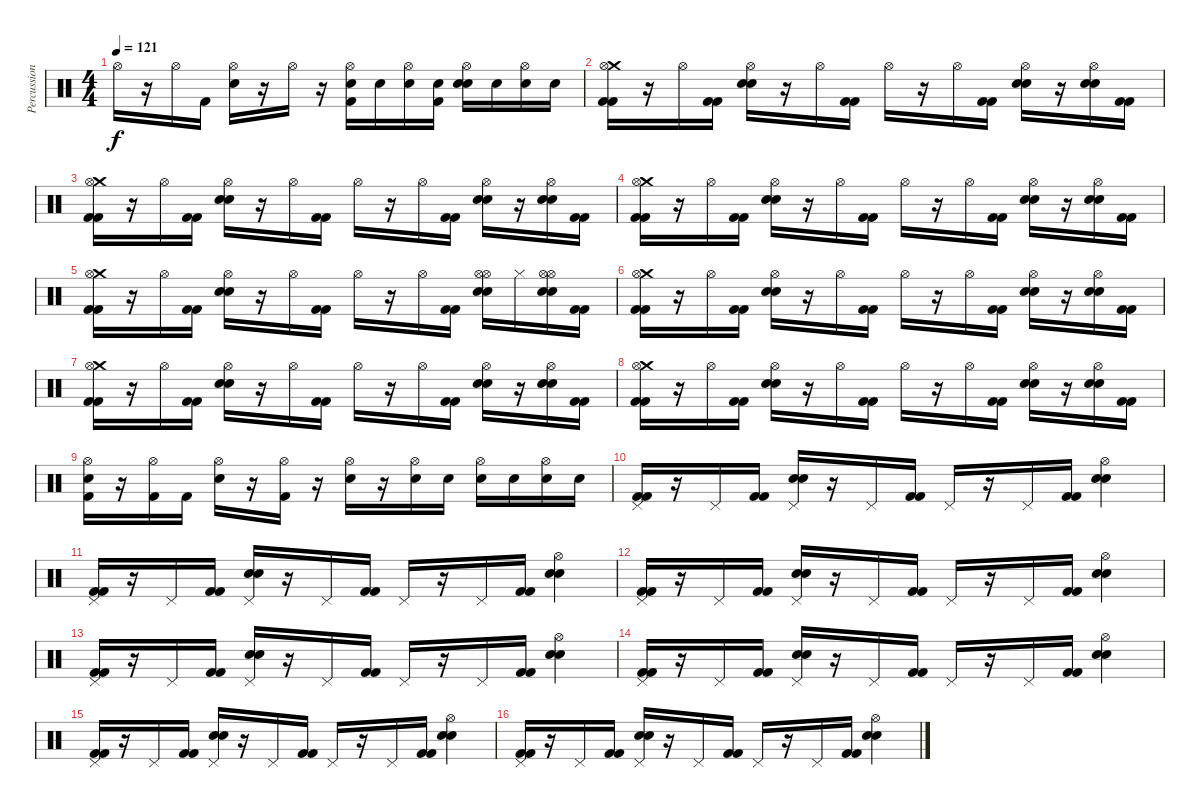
\track ("Percussion- Mike" "Percussion") {instrument percussion}
\staff {score}
\articulation defaults
\ts (4 4)
\tempo 121
\clef neutral
\ks c "Hi-Hat (open)".16{dy f}
r.16 "Hi-Hat (open)".16 "Kick (hit) 2".16 ("Electric Snare (hit)" "Hi-Hat (open)").16 r.16 "Hi-Hat (open)".16 r.16 ("Electric Snare (hit)" "Kick (hit) 2" "Hi-Hat (open)").16 "Electric Snare (hit)".16 ("Electric Snare (hit)" "Hi-Hat (open)").16 ("Electric Snare (hit)" "Kick (hit) 2").16 ("Electric Snare (hit)" "Electric Snare (hit)" "Hi-Hat (open)").16 "Electric Snare (hit)".16 ("Electric Snare (hit)" "Hi-Hat (open)").16 "Electric Snare (hit)".16 |
("Crash medium (hit)" "Kick (hit) 2" "Kick (hit) 2" "Hi-Hat (open)").16 r.16 "Hi-Hat (open)".16 ("Kick (hit) 2" "Kick (hit) 2").16 ("Snare (hit) 2" "Snare (hit) 2" "Hi-Hat (open)").16 r.16 "Hi-Hat (open)".16 ("Kick (hit) 2" "Kick (hit) 2").16 "Hi-Hat (open)".16 r.16 "Hi-Hat (open)".16 ("Kick (hit) 2" "Kick (hit) 2").16 ("Snare (hit) 2" "Snare (hit) 2" "Hi-Hat (open)").16 r.16 ("Electric Snare (hit)" "Electric Snare (hit)" "Hi-Hat (open)").16 ("Kick (hit) 2" "Kick (hit) 2").16 |
("Crash medium (hit)" "Kick (hit) 2" "Kick (hit) 2" "Hi-Hat (open)").16 r.16 "Hi-Hat (open)".16 ("Kick (hit) 2" "Kick (hit) 2").16 ("Snare (hit) 2" "Snare (hit) 2" "Hi-Hat (open)").16 r.16 "Hi-Hat (open)".16 ("Kick (hit) 2" "Kick (hit) 2").16 "Hi-Hat (open)".16 r.16 "Hi-Hat (open)".16 ("Kick (hit) 2" "Kick (hit) 2").16 ("Snare (hit) 2" "Snare (hit) 2" "Hi-Hat (open)").16 r.16 ("Electric Snare (hit)" "Electric Snare (hit)" "Hi-Hat (open)").16 ("Kick (hit) 2" "Kick (hit) 2").16 |
("Crash medium (hit)" "Kick (hit) 2" "Kick (hit) 2" "Hi-Hat (open)").16 r.16 "Hi-Hat (open)".16 ("Kick (hit) 2" "Kick (hit) 2").16 ("Snare (hit) 2" "Snare (hit) 2" "Hi-Hat (open)").16 r.16 "Hi-Hat (open)".16 ("Kick (hit) 2" "Kick (hit) 2").16 "Hi-Hat (open)".16 r.16 "Hi-Hat (open)".16 ("Kick (hit) 2" "Kick (hit) 2").16 ("Snare (hit) 2" "Snare (hit) 2" "Hi-Hat (open)").16 r.16 ("Electric Snare (hit)" "Electric Snare (hit)" "Hi-Hat (open)").16 ("Kick (hit) 2" "Kick (hit) 2").16 |
("Crash medium (hit)" "Kick (hit) 2" "Kick (hit) 2" "Hi-Hat (open)").16 r.16 "Hi-Hat (open)".16 ("Kick (hit) 2" "Kick (hit) 2").16 ("Snare (hit) 2" "Snare (hit) 2" "Hi-Hat (open)").16 r.16 "Hi-Hat (open)".16 ("Kick (hit) 2" "Kick (hit) 2").16 "Hi-Hat (open)".16 r.16 "Hi-Hat (open)".16 ("Kick (hit) 2" "Kick (hit) 2").16 ("Hi-Hat (open)" "Snare (hit) 2" "Snare (hit) 2" "Hi-Hat (open)").16 "Hi-Hat (closed)".16 ("Hi-Hat (open)" "Electric Snare (hit)" "Electric Snare (hit)" "Hi-Hat (open)").16 ("Kick (hit) 2" "Kick (hit) 2").16 |
("Crash medium (hit)" "Kick (hit) 2" "Kick (hit) 2" "Hi-Hat (open)").16 r.16 "Hi-Hat (open)".16 ("Kick (hit) 2" "Kick (hit) 2").16 ("Snare (hit) 2" "Snare (hit) 2" "Hi-Hat (open)").16 r.16 "Hi-Hat (open)".16 ("Kick (hit) 2" "Kick (hit) 2").16 "Hi-Hat (open)".16 r.16 "Hi-Hat (open)".16 ("Kick (hit) 2" "Kick (hit) 2").16 ("Snare (hit) 2" "Snare (hit) 2" "Hi-Hat (open)").16 r.16 ("Electric Snare (hit)" "Electric Snare (hit)" "Hi-Hat (open)").16 ("Kick (hit) 2" "Kick (hit) 2").16 |
("Crash medium (hit)" "Kick (hit) 2" "Kick (hit) 2" "Hi-Hat (open)").16 r.16 "Hi-Hat (open)".16 ("Kick (hit) 2" "Kick (hit) 2").16 ("Snare (hit) 2" "Snare (hit) 2" "Hi-Hat (open)").16 r.16 "Hi-Hat (open)".16 ("Kick (hit) 2" "Kick (hit) 2").16 "Hi-Hat (open)".16 r.16 "Hi-Hat (open)".16 ("Kick (hit) 2" "Kick (hit) 2").16 ("Snare (hit) 2" "Snare (hit) 2" "Hi-Hat (open)").16 r.16 ("Electric Snare (hit)" "Electric Snare (hit)" "Hi-Hat (open)").16 ("Kick (hit) 2" "Kick (hit) 2").16 |
("Crash medium (hit)" "Kick (hit) 2" "Kick (hit) 2" "Hi-Hat (open)").16 r.16 "Hi-Hat (open)".16 ("Kick (hit) 2" "Kick (hit) 2").16 ("Snare (hit) 2" "Snare (hit) 2" "Hi-Hat (open)").16 r.16 "Hi-Hat (open)".16 ("Kick (hit) 2" "Kick (hit) 2").16 "Hi-Hat (open)".16 r.16 "Hi-Hat (open)".16 ("Kick (hit) 2" "Kick (hit) 2").16 ("Snare (hit) 2" "Snare (hit) 2" "Hi-Hat (open)").16 r.16 ("Electric Snare (hit)" "Electric Snare (hit)" "Hi-Hat (open)").16 ("Kick (hit) 2" "Kick (hit) 2").16 |
("Snare (hit) 2" "Kick (hit) 2" "Hi-Hat (open)").16 r.16 ("Kick (hit) 2" "Hi-Hat (open)").16 "Kick (hit) 2".16 ("Snare (hit) 2" "Hi-Hat (open)").16 r.16 ("Kick (hit) 2" "Hi-Hat (open)").16 r.16 ("Snare (hit) 2" "Hi-Hat (open)").16 r.16 ("Electric Snare (hit)" "Hi-Hat (open)").16 "Electric Snare (hit)".16 ("Electric Snare (hit)" "Hi-Hat (open)").16 "Electric Snare (hit)".16 ("Electric Snare (hit)" "Hi-Hat (open)").16 "Electric Snare (hit)".16 |
("Kick (hit) 2" "Kick (hit) 2" "Pedal Hi-Hat (hit)").16 r.16 "Pedal Hi-Hat (hit)".16 ("Kick (hit) 2" "Kick (hit) 2").16 ("Snare (hit) 2" "Snare (hit) 2" "Pedal Hi-Hat (hit)").16 r.16 "Pedal Hi-Hat (hit)".16 ("Kick (hit) 2" "Kick (hit) 2").16 "Pedal Hi-Hat (hit)".16 r.16 "Pedal Hi-Hat (hit)".16 ("Kick (hit) 2" "Kick (hit) 2").16 ("Hi-Hat (open)" "Snare (hit) 2" "Snare (hit) 2").4 |
("Kick (hit) 2" "Kick (hit) 2" "Pedal Hi-Hat (hit)").16 r.16 "Pedal Hi-Hat (hit)".16 ("Kick (hit) 2" "Kick (hit) 2").16 ("Snare (hit) 2" "Snare (hit) 2" "Pedal Hi-Hat (hit)").16 r.16 "Pedal Hi-Hat (hit)".16 ("Kick (hit) 2" "Kick (hit) 2").16 "Pedal Hi-Hat (hit)".16 r.16 "Pedal Hi-Hat (hit)".16 ("Kick (hit) 2" "Kick (hit) 2").16 ("Hi-Hat (open)" "Snare (hit) 2" "Snare (hit) 2").4 |
("Kick (hit) 2" "Kick (hit) 2" "Pedal Hi-Hat (hit)").16 r.16 "Pedal Hi-Hat (hit)".16 ("Kick (hit) 2" "Kick (hit) 2").16 ("Snare (hit) 2" "Snare (hit) 2" "Pedal Hi-Hat (hit)").16 r.16 "Pedal Hi-Hat (hit)".16 ("Kick (hit) 2" "Kick (hit) 2").16 "Pedal Hi-Hat (hit)".16 r.16 "Pedal Hi-Hat (hit)".16 ("Kick (hit) 2" "Kick (hit) 2").16 ("Hi-Hat (open)" "Snare (hit) 2" "Snare (hit) 2").4 |
("Kick (hit) 2" "Kick (hit) 2" "Pedal Hi-Hat (hit)").16 r.16 "Pedal Hi-Hat (hit)".16 ("Kick (hit) 2" "Kick (hit) 2").16 ("Snare (hit) 2" "Snare (hit) 2" "Pedal Hi-Hat (hit)").16 r.16 "Pedal Hi-Hat (hit)".16 ("Kick (hit) 2" "Kick (hit) 2").16 "Pedal Hi-Hat (hit)".16 r.16 "Pedal Hi-Hat (hit)".16 ("Kick (hit) 2" "Kick (hit) 2").16 ("Hi-Hat (open)" "Snare (hit) 2" "Snare (hit) 2").4 |
("Kick (hit) 2" "Kick (hit) 2" "Pedal Hi-Hat (hit)").16 r.16 "Pedal Hi-Hat (hit)".16 ("Kick (hit) 2" "Kick (hit) 2").16 ("Snare (hit) 2" "Snare (hit) 2" "Pedal Hi-Hat (hit)").16 r.16 "Pedal Hi-Hat (hit)".16 ("Kick (hit) 2" "Kick (hit) 2").16 "Pedal Hi-Hat (hit)".16 r.16 "Pedal Hi-Hat (hit)".16 ("Kick (hit) 2" "Kick (hit) 2").16 ("Hi-Hat (open)" "Snare (hit) 2" "Snare (hit) 2").4 |
("Kick (hit) 2" "Kick (hit) 2" "Pedal Hi-Hat (hit)").16 r.16 "Pedal Hi-Hat (hit)".16 ("Kick (hit) 2" "Kick (hit) 2").16 ("Snare (hit) 2" "Snare (hit) 2" "Pedal Hi-Hat (hit)").16 r.16 "Pedal Hi-Hat (hit)".16 ("Kick (hit) 2" "Kick (hit) 2").16 "Pedal Hi-Hat (hit)".16 r.16 "Pedal Hi-Hat (hit)".16 ("Kick (hit) 2" "Kick (hit) 2").16 ("Hi-Hat (open)" "Snare (hit) 2" "Snare (hit) 2").4 |
("Kick (hit) 2" "Kick (hit) 2" "Pedal Hi-Hat (hit)").16 r.16 "Pedal Hi-Hat (hit)".16 ("Kick (hit) 2" "Kick (hit) 2").16 ("Snare (hit) 2" "Snare (hit) 2" "Pedal Hi-Hat (hit)").16 r.16 "Pedal Hi-Hat (hit)".16 ("Kick (hit) 2" "Kick (hit) 2").16 "Pedal Hi-Hat (hit)".16 r.16 "Pedal Hi-Hat (hit)".16 ("Kick (hit) 2" "Kick (hit) 2").16 ("Hi-Hat (open)" "Snare (hit) 2" "Snare (hit) 2").4
